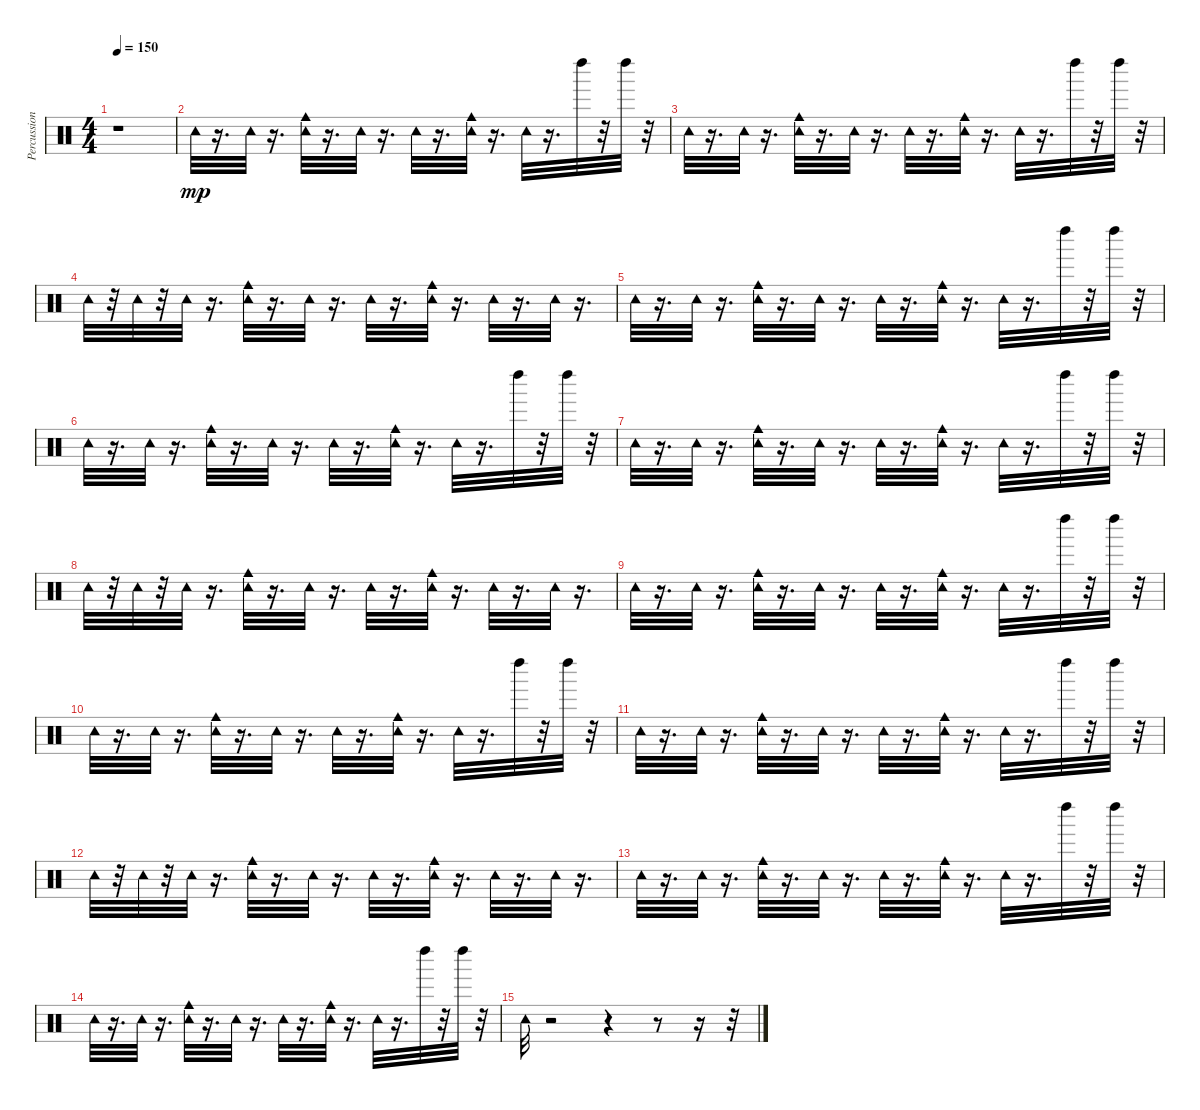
\track ("Percussion" "Percussion") {instrument percussion}
\staff {score}
\articulation defaults
\ts (4 4)
\tempo 150
\clef neutral
\ks c
r.1{dy mp} |
"Tambourine (hit)".32 r.16{d} "Tambourine (hit)".32 r.16{d} ("Tambourine (hit)" "Cowbell medium (hit)").32 r.16{d} "Tambourine (hit)".32 r.16{d} "Tambourine (hit)".32 r.16{d} ("Tambourine (hit)" "Cowbell medium (hit)").32 r.16{d} "Tambourine (hit)".32 r.16{d} "Left Maraca (hit)".32 r.32 "Left Maraca (hit)".32 r.32 |
"Tambourine (hit)".32 r.16{d} "Tambourine (hit)".32 r.16{d} ("Tambourine (hit)" "Cowbell medium (hit)").32 r.16{d} "Tambourine (hit)".32 r.16{d} "Tambourine (hit)".32 r.16{d} ("Tambourine (hit)" "Cowbell medium (hit)").32 r.16{d} "Tambourine (hit)".32 r.16{d} "Left Maraca (hit)".32 r.32 "Left Maraca (hit)".32 r.32 |
"Tambourine (hit)".32 r.32 "Tambourine (hit)".32 r.32 "Tambourine (hit)".32 r.16{d} ("Tambourine (hit)" "Cowbell medium (hit)").32 r.16{d} "Tambourine (hit)".32 r.16{d} "Tambourine (hit)".32 r.16{d} ("Tambourine (hit)" "Cowbell medium (hit)").32 r.16{d} "Tambourine (hit)".32 r.16{d} "Tambourine (hit)".32 r.16{d} |
"Tambourine (hit)".32 r.16{d} "Tambourine (hit)".32 r.16{d} ("Tambourine (hit)" "Cowbell medium (hit)").32 r.16{d} "Tambourine (hit)".32 r.16{d} "Tambourine (hit)".32 r.16{d} ("Tambourine (hit)" "Cowbell medium (hit)").32 r.16{d} "Tambourine (hit)".32 r.16{d} "Left Maraca (hit)".32 r.32 "Left Maraca (hit)".32 r.32 |
"Tambourine (hit)".32 r.16{d} "Tambourine (hit)".32 r.16{d} ("Tambourine (hit)" "Cowbell medium (hit)").32 r.16{d} "Tambourine (hit)".32 r.16{d} "Tambourine (hit)".32 r.16{d} ("Tambourine (hit)" "Cowbell medium (hit)").32 r.16{d} "Tambourine (hit)".32 r.16{d} "Left Maraca (hit)".32 r.32 "Left Maraca (hit)".32 r.32 |
"Tambourine (hit)".32 r.16{d} "Tambourine (hit)".32 r.16{d} ("Tambourine (hit)" "Cowbell medium (hit)").32 r.16{d} "Tambourine (hit)".32 r.16{d} "Tambourine (hit)".32 r.16{d} ("Tambourine (hit)" "Cowbell medium (hit)").32 r.16{d} "Tambourine (hit)".32 r.16{d} "Left Maraca (hit)".32 r.32 "Left Maraca (hit)".32 r.32 |
"Tambourine (hit)".32 r.32 "Tambourine (hit)".32 r.32 "Tambourine (hit)".32 r.16{d} ("Tambourine (hit)" "Cowbell medium (hit)").32 r.16{d} "Tambourine (hit)".32 r.16{d} "Tambourine (hit)".32 r.16{d} ("Tambourine (hit)" "Cowbell medium (hit)").32 r.16{d} "Tambourine (hit)".32 r.16{d} "Tambourine (hit)".32 r.16{d} |
"Tambourine (hit)".32 r.16{d} "Tambourine (hit)".32 r.16{d} ("Tambourine (hit)" "Cowbell medium (hit)").32 r.16{d} "Tambourine (hit)".32 r.16{d} "Tambourine (hit)".32 r.16{d} ("Tambourine (hit)" "Cowbell medium (hit)").32 r.16{d} "Tambourine (hit)".32 r.16{d} "Left Maraca (hit)".32 r.32 "Left Maraca (hit)".32 r.32 |
"Tambourine (hit)".32 r.16{d} "Tambourine (hit)".32 r.16{d} ("Tambourine (hit)" "Cowbell medium (hit)").32 r.16{d} "Tambourine (hit)".32 r.16{d} "Tambourine (hit)".32 r.16{d} ("Tambourine (hit)" "Cowbell medium (hit)").32 r.16{d} "Tambourine (hit)".32 r.16{d} "Left Maraca (hit)".32 r.32 "Left Maraca (hit)".32 r.32 |
"Tambourine (hit)".32 r.16{d} "Tambourine (hit)".32 r.16{d} ("Tambourine (hit)" "Cowbell medium (hit)").32 r.16{d} "Tambourine (hit)".32 r.16{d} "Tambourine (hit)".32 r.16{d} ("Tambourine (hit)" "Cowbell medium (hit)").32 r.16{d} "Tambourine (hit)".32 r.16{d} "Left Maraca (hit)".32 r.32 "Left Maraca (hit)".32 r.32 |
"Tambourine (hit)".32 r.32 "Tambourine (hit)".32 r.32 "Tambourine (hit)".32 r.16{d} ("Tambourine (hit)" "Cowbell medium (hit)").32 r.16{d} "Tambourine (hit)".32 r.16{d} "Tambourine (hit)".32 r.16{d} ("Tambourine (hit)" "Cowbell medium (hit)").32 r.16{d} "Tambourine (hit)".32 r.16{d} "Tambourine (hit)".32 r.16{d} |
"Tambourine (hit)".32 r.16{d} "Tambourine (hit)".32 r.16{d} ("Tambourine (hit)" "Cowbell medium (hit)").32 r.16{d} "Tambourine (hit)".32 r.16{d} "Tambourine (hit)".32 r.16{d} ("Tambourine (hit)" "Cowbell medium (hit)").32 r.16{d} "Tambourine (hit)".32 r.16{d} "Left Maraca (hit)".32 r.32 "Left Maraca (hit)".32 r.32 |
"Tambourine (hit)".32 r.16{d} "Tambourine (hit)".32 r.16{d} ("Tambourine (hit)" "Cowbell medium (hit)").32 r.16{d} "Tambourine (hit)".32 r.16{d} "Tambourine (hit)".32 r.16{d} ("Tambourine (hit)" "Cowbell medium (hit)").32 r.16{d} "Tambourine (hit)".32 r.16{d} "Left Maraca (hit)".32 r.32 "Left Maraca (hit)".32 r.32 |
"Tambourine (hit)".32 r.2 r.4 r.8 r.16 r.32
